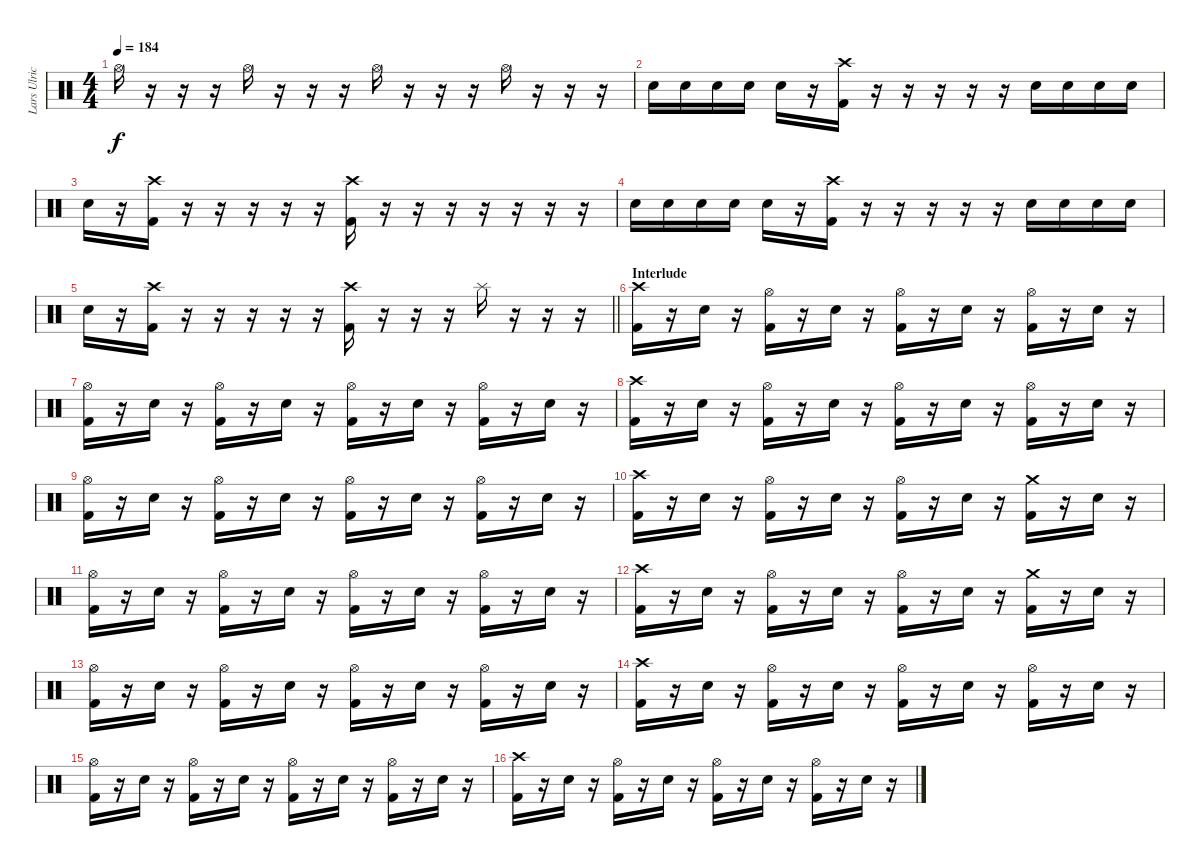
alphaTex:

\track ("Lars Ulrich" "Lars Ulric") {instrument percussion}
\staff {score}
\articulation defaults
\ts (4 4)
\tempo 184
\clef neutral
\ks c "Hi-Hat (open)".16{dy f}
r.16 r.16 r.16 "Hi-Hat (open)".16 r.16 r.16 r.16 "Hi-Hat (open)".16 r.16 r.16 r.16 "Hi-Hat (open)".16 r.16 r.16 r.16 |
"Electric Snare (hit)".16 "Electric Snare (hit)".16 "Electric Snare (hit)".16 "Electric Snare (hit)".16 "Electric Snare (hit)".16 r.16 ("Crash high (hit)" "Kick (hit) 2").16 r.16 r.16 r.16 r.16 r.16 "Electric Snare (hit)".16 "Electric Snare (hit)".16 "Electric Snare (hit)".16 "Electric Snare (hit)".16 |
"Electric Snare (hit)".16 r.16 ("Crash high (hit)" "Kick (hit) 2").16 r.16 r.16 r.16 r.16 r.16 ("Crash high (hit)" "Kick (hit) 2").16 r.16 r.16 r.16{volume 0} r.16 r.16 r.16 r.16 |
"Electric Snare (hit)".16{volume 10} "Electric Snare (hit)".16 "Electric Snare (hit)".16 "Electric Snare (hit)".16 "Electric Snare (hit)".16 r.16 ("Crash high (hit)" "Kick (hit) 2").16 r.16 r.16 r.16 r.16 r.16 "Electric Snare (hit)".16 "Electric Snare (hit)".16 "Electric Snare (hit)".16 "Electric Snare (hit)".16 |
\barLineRight lightlight "Electric Snare (hit)".16
r.16 ("Crash high (hit)" "Kick (hit) 2").16 r.16 r.16 r.16 r.16 r.16 ("Crash high (hit)" "Kick (hit) 2").16 r.16 r.16 r.16{volume 0} "Splash (hit)".16{volume 10} r.16 r.16 r.16 |
\section ("" "Interlude")
("Crash high (hit)" "Kick (hit) 2").16 r.16 "Electric Snare (hit)".16 r.16 ("Hi-Hat (open)" "Kick (hit) 2").16 r.16 "Electric Snare (hit)".16 r.16 ("Hi-Hat (open)" "Kick (hit) 2").16 r.16 "Electric Snare (hit)".16 r.16 ("Hi-Hat (open)" "Kick (hit) 2").16 r.16 "Electric Snare (hit)".16 r.16 |
("Hi-Hat (open)" "Kick (hit) 2").16 r.16 "Electric Snare (hit)".16 r.16 ("Hi-Hat (open)" "Kick (hit) 2").16 r.16 "Electric Snare (hit)".16 r.16 ("Hi-Hat (open)" "Kick (hit) 2").16 r.16 "Electric Snare (hit)".16 r.16 ("Hi-Hat (open)" "Kick (hit) 2").16 r.16 "Electric Snare (hit)".16 r.16 |
("Crash high (hit)" "Kick (hit) 2").16 r.16 "Electric Snare (hit)".16 r.16 ("Hi-Hat (open)" "Kick (hit) 2").16 r.16 "Electric Snare (hit)".16 r.16 ("Hi-Hat (open)" "Kick (hit) 2").16 r.16 "Electric Snare (hit)".16 r.16 ("Hi-Hat (open)" "Kick (hit) 2").16 r.16 "Electric Snare (hit)".16 r.16 |
("Hi-Hat (open)" "Kick (hit) 2").16 r.16 "Electric Snare (hit)".16 r.16 ("Hi-Hat (open)" "Kick (hit) 2").16 r.16 "Electric Snare (hit)".16 r.16 ("Hi-Hat (open)" "Kick (hit) 2").16 r.16 "Electric Snare (hit)".16 r.16 ("Hi-Hat (open)" "Kick (hit) 2").16 r.16 "Electric Snare (hit)".16 r.16 |
("Crash high (hit)" "Kick (hit) 2").16 r.16 "Electric Snare (hit)".16 r.16 ("Hi-Hat (open)" "Kick (hit) 2").16 r.16 "Electric Snare (hit)".16 r.16 ("Hi-Hat (open)" "Kick (hit) 2").16 r.16 "Electric Snare (hit)".16 r.16 ("Crash medium (hit)" "Kick (hit) 2").16 r.16 "Electric Snare (hit)".16 r.16 |
("Hi-Hat (open)" "Kick (hit) 2").16 r.16 "Electric Snare (hit)".16 r.16 ("Hi-Hat (open)" "Kick (hit) 2").16 r.16 "Electric Snare (hit)".16 r.16 ("Hi-Hat (open)" "Kick (hit) 2").16 r.16 "Electric Snare (hit)".16 r.16 ("Hi-Hat (open)" "Kick (hit) 2").16 r.16 "Electric Snare (hit)".16 r.16 |
("Crash high (hit)" "Kick (hit) 2").16 r.16 "Electric Snare (hit)".16 r.16 ("Hi-Hat (open)" "Kick (hit) 2").16 r.16 "Electric Snare (hit)".16 r.16 ("Hi-Hat (open)" "Kick (hit) 2").16 r.16 "Electric Snare (hit)".16 r.16 ("Crash medium (hit)" "Kick (hit) 2").16 r.16 "Electric Snare (hit)".16 r.16 |
("Hi-Hat (open)" "Kick (hit) 2").16 r.16 "Electric Snare (hit)".16 r.16 ("Hi-Hat (open)" "Kick (hit) 2").16 r.16 "Electric Snare (hit)".16 r.16 ("Hi-Hat (open)" "Kick (hit) 2").16 r.16 "Electric Snare (hit)".16 r.16 ("Hi-Hat (open)" "Kick (hit) 2").16 r.16 "Electric Snare (hit)".16 r.16 |
("Crash high (hit)" "Kick (hit) 2").16 r.16 "Electric Snare (hit)".16 r.16 ("Hi-Hat (open)" "Kick (hit) 2").16 r.16 "Electric Snare (hit)".16 r.16 ("Hi-Hat (open)" "Kick (hit) 2").16 r.16 "Electric Snare (hit)".16 r.16 ("Hi-Hat (open)" "Kick (hit) 2").16 r.16 "Electric Snare (hit)".16 r.16 |
("Hi-Hat (open)" "Kick (hit) 2").16 r.16 "Electric Snare (hit)".16 r.16 ("Hi-Hat (open)" "Kick (hit) 2").16 r.16 "Electric Snare (hit)".16 r.16 ("Hi-Hat (open)" "Kick (hit) 2").16 r.16 "Electric Snare (hit)".16 r.16 ("Hi-Hat (open)" "Kick (hit) 2").16 r.16 "Electric Snare (hit)".16 r.16 |
("Crash high (hit)" "Kick (hit) 2").16 r.16 "Electric Snare (hit)".16 r.16 ("Hi-Hat (open)" "Kick (hit) 2").16 r.16 "Electric Snare (hit)".16 r.16 ("Hi-Hat (open)" "Kick (hit) 2").16 r.16 "Electric Snare (hit)".16 r.16 ("Hi-Hat (open)" "Kick (hit) 2").16 r.16 "Electric Snare (hit)".16 r.16
